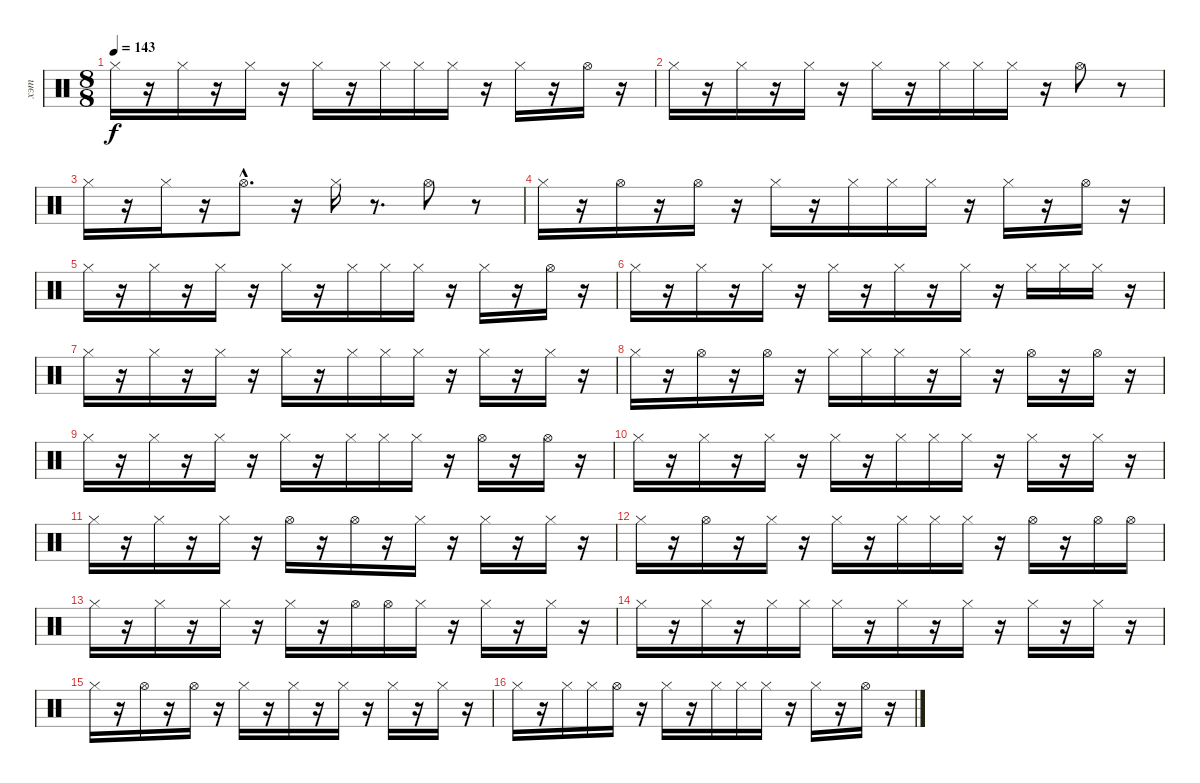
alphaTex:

\track ("хэт" "хэт") {instrument percussion}
\staff {score}
\articulation defaults
\ts (8 8)
\tempo 143
\clef neutral
\ks c "Hi-Hat (closed)".16{dy f}
r.16 "Hi-Hat (closed)".16 r.16 "Hi-Hat (closed)".16 r.16 "Hi-Hat (closed)".16 r.16 "Hi-Hat (closed)".16 "Hi-Hat (closed)".16 "Hi-Hat (closed)".16 r.16 "Hi-Hat (closed)".16 r.16 "Hi-Hat (open)".16 r.16 |
"Hi-Hat (closed)".16 r.16 "Hi-Hat (closed)".16 r.16 "Hi-Hat (closed)".16 r.16 "Hi-Hat (closed)".16 r.16 "Hi-Hat (closed)".16 "Hi-Hat (closed)".16 "Hi-Hat (closed)".16 r.16 "Hi-Hat (open)".8 r.8 |
"Hi-Hat (closed)".16 r.16 "Hi-Hat (closed)".16 r.16 "Hi-Hat (open)"{hac}.8{d} r.16 "Hi-Hat (closed)".16 r.8{d} "Hi-Hat (open)".8 r.8 |
"Hi-Hat (closed)".16 r.16 "Hi-Hat (open)".16 r.16 "Hi-Hat (open)".16 r.16 "Hi-Hat (closed)".16 r.16 "Hi-Hat (closed)".16 "Hi-Hat (closed)".16 "Hi-Hat (closed)".16 r.16 "Hi-Hat (closed)".16 r.16 "Hi-Hat (open)".16 r.16 |
"Hi-Hat (closed)".16 r.16 "Hi-Hat (closed)".16 r.16 "Hi-Hat (closed)".16 r.16 "Hi-Hat (closed)".16 r.16 "Hi-Hat (closed)".16 "Hi-Hat (closed)".16 "Hi-Hat (closed)".16 r.16 "Hi-Hat (closed)".16 r.16 "Hi-Hat (open)".16 r.16 |
"Hi-Hat (closed)".16 r.16 "Hi-Hat (closed)".16 r.16 "Hi-Hat (closed)".16 r.16 "Hi-Hat (closed)".16 r.16 "Hi-Hat (closed)".16 r.16 "Hi-Hat (closed)".16 r.16 "Hi-Hat (closed)".16 "Hi-Hat (closed)".16 "Hi-Hat (closed)".16 r.16 |
"Hi-Hat (closed)".16 r.16 "Hi-Hat (closed)".16 r.16 "Hi-Hat (closed)".16 r.16 "Hi-Hat (closed)".16 r.16 "Hi-Hat (closed)".16 "Hi-Hat (closed)".16 "Hi-Hat (closed)".16 r.16 "Hi-Hat (closed)".16 r.16 "Hi-Hat (closed)".16 r.16 |
"Hi-Hat (closed)".16 r.16 "Hi-Hat (open)".16 r.16 "Hi-Hat (open)".16 r.16 "Hi-Hat (closed)".16 "Hi-Hat (closed)".16 "Hi-Hat (closed)".16 r.16 "Hi-Hat (closed)".16 r.16 "Hi-Hat (open)".16 r.16 "Hi-Hat (open)".16 r.16 |
"Hi-Hat (closed)".16 r.16 "Hi-Hat (closed)".16 r.16 "Hi-Hat (closed)".16 r.16 "Hi-Hat (closed)".16 r.16 "Hi-Hat (closed)".16 "Hi-Hat (closed)".16 "Hi-Hat (closed)".16 r.16 "Hi-Hat (open)".16 r.16 "Hi-Hat (open)".16 r.16 |
"Hi-Hat (closed)".16 r.16 "Hi-Hat (closed)".16 r.16 "Hi-Hat (closed)".16 r.16 "Hi-Hat (closed)".16 r.16 "Hi-Hat (closed)".16 "Hi-Hat (closed)".16 "Hi-Hat (closed)".16 r.16 "Hi-Hat (closed)".16 r.16 "Hi-Hat (closed)".16 r.16 |
"Hi-Hat (closed)".16 r.16 "Hi-Hat (closed)".16 r.16 "Hi-Hat (closed)".16 r.16 "Hi-Hat (open)".16 r.16 "Hi-Hat (open)".16 r.16 "Hi-Hat (closed)".16 r.16 "Hi-Hat (closed)".16 r.16 "Hi-Hat (closed)".16 r.16 |
"Hi-Hat (closed)".16 r.16 "Hi-Hat (open)".16 r.16 "Hi-Hat (closed)".16 r.16 "Hi-Hat (closed)".16 r.16 "Hi-Hat (closed)".16 "Hi-Hat (closed)".16 "Hi-Hat (closed)".16 r.16 "Hi-Hat (open)".16 r.16 "Hi-Hat (open)".16 "Hi-Hat (open)".16 |
"Hi-Hat (closed)".16 r.16 "Hi-Hat (closed)".16 r.16 "Hi-Hat (closed)".16 r.16 "Hi-Hat (closed)".16 r.16 "Hi-Hat (open)".16 "Hi-Hat (open)".16 "Hi-Hat (closed)".16 r.16 "Hi-Hat (closed)".16 r.16 "Hi-Hat (closed)".16 r.16 |
"Hi-Hat (closed)".16 r.16 "Hi-Hat (closed)".16 r.16 "Hi-Hat (closed)".16 "Hi-Hat (closed)".16 "Hi-Hat (closed)".16 r.16 "Hi-Hat (closed)".16 r.16 "Hi-Hat (closed)".16 r.16 "Hi-Hat (closed)".16 r.16 "Hi-Hat (closed)".16 r.16 |
"Hi-Hat (closed)".16 r.16 "Hi-Hat (open)".16 r.16 "Hi-Hat (open)".16 r.16 "Hi-Hat (closed)".16 r.16 "Hi-Hat (closed)".16 r.16 "Hi-Hat (closed)".16 r.16 "Hi-Hat (closed)".16 r.16 "Hi-Hat (closed)".16 r.16 |
"Hi-Hat (closed)".16 r.16 "Hi-Hat (closed)".16 "Hi-Hat (closed)".16 "Hi-Hat (open)".16 r.16 "Hi-Hat (closed)".16 r.16 "Hi-Hat (closed)".16 "Hi-Hat (closed)".16 "Hi-Hat (closed)".16 r.16 "Hi-Hat (closed)".16 r.16 "Hi-Hat (open)".16 r.16
